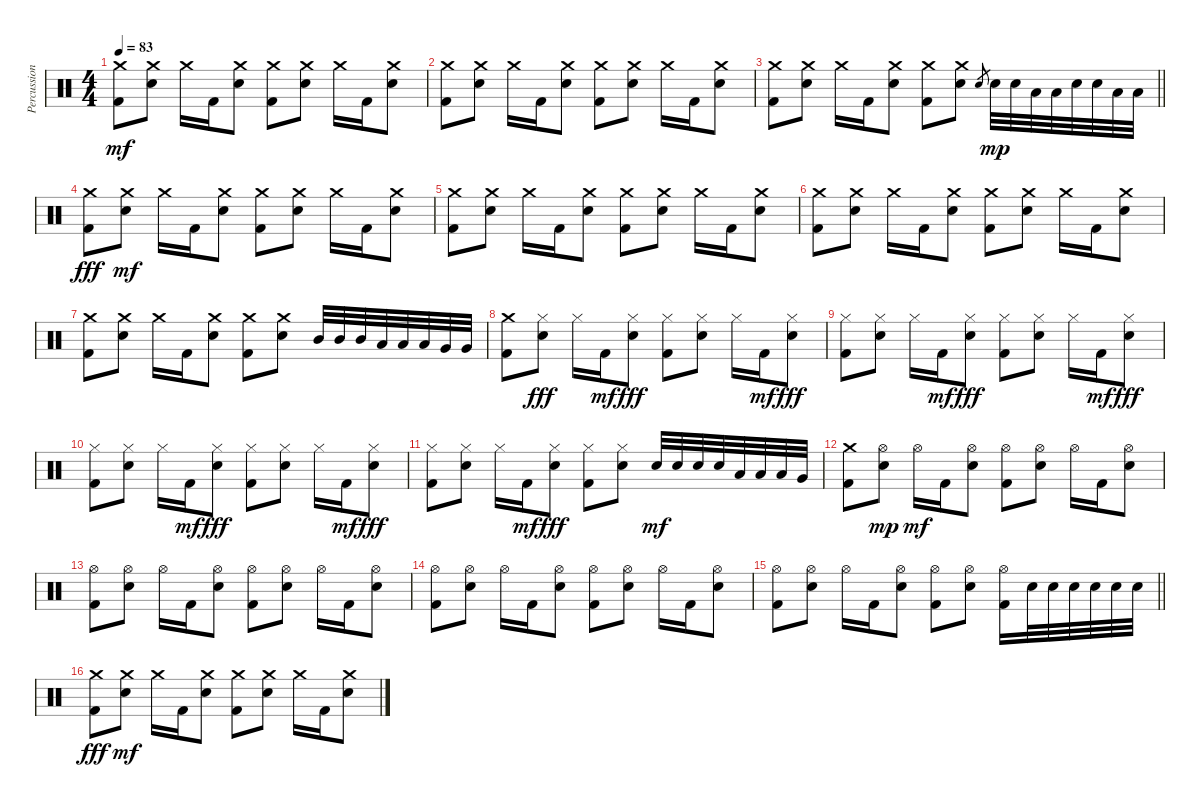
\track ("Percussions" "Percussion") {instrument percussion}
\staff {score}
\articulation defaults
\ts (4 4)
\tempo 83
\clef neutral
\ks c
("Kick (hit) 2" "Crash medium (hit)").8{dy mf} ("Electric Snare (hit)" "Crash medium (hit)").8 "Crash medium (hit)".16 "Kick (hit) 2".16 ("Electric Snare (hit)" "Crash medium (hit)").8 ("Kick (hit) 2" "Crash medium (hit)").8 ("Electric Snare (hit)" "Crash medium (hit)").8 "Crash medium (hit)".16 "Kick (hit) 2".16 ("Electric Snare (hit)" "Crash medium (hit)").8 |
("Kick (hit) 2" "Crash medium (hit)").8 ("Electric Snare (hit)" "Crash medium (hit)").8 "Crash medium (hit)".16 "Kick (hit) 2".16 ("Electric Snare (hit)" "Crash medium (hit)").8 ("Kick (hit) 2" "Crash medium (hit)").8 ("Electric Snare (hit)" "Crash medium (hit)").8 "Crash medium (hit)".16 "Kick (hit) 2".16 ("Electric Snare (hit)" "Crash medium (hit)").8 |
\barLineRight lightlight
("Kick (hit) 2" "Crash medium (hit)").8 ("Electric Snare (hit)" "Crash medium (hit)").8 "Crash medium (hit)".16 "Kick (hit) 2".16 ("Electric Snare (hit)" "Crash medium (hit)").8 ("Kick (hit) 2" "Crash medium (hit)").8 ("Electric Snare (hit)" "Crash medium (hit)").8 "Electric Snare (hit)".8{gr} "Electric Snare (hit)".32{dy mp} "Electric Snare (hit)".32 "Low Tom (hit)".32 "Low Tom (hit)".32 "Electric Snare (hit)".32 "Electric Snare (hit)".32 "Low Tom (hit)".32 "Low Tom (hit)".32 |
\section ("" "")
("Kick (hit) 2" "Crash medium (hit)").8{dy fff} ("Electric Snare (hit)" "Crash medium (hit)").8{dy mf} "Crash medium (hit)".16 "Kick (hit) 2".16 ("Electric Snare (hit)" "Crash medium (hit)").8 ("Kick (hit) 2" "Crash medium (hit)").8 ("Electric Snare (hit)" "Crash medium (hit)").8 "Crash medium (hit)".16 "Kick (hit) 2".16 ("Electric Snare (hit)" "Crash medium (hit)").8 |
("Kick (hit) 2" "Crash medium (hit)").8 ("Electric Snare (hit)" "Crash medium (hit)").8 "Crash medium (hit)".16 "Kick (hit) 2".16 ("Electric Snare (hit)" "Crash medium (hit)").8 ("Kick (hit) 2" "Crash medium (hit)").8 ("Electric Snare (hit)" "Crash medium (hit)").8 "Crash medium (hit)".16 "Kick (hit) 2".16 ("Electric Snare (hit)" "Crash medium (hit)").8 |
("Kick (hit) 2" "Crash medium (hit)").8 ("Electric Snare (hit)" "Crash medium (hit)").8 "Crash medium (hit)".16 "Kick (hit) 2".16 ("Electric Snare (hit)" "Crash medium (hit)").8 ("Kick (hit) 2" "Crash medium (hit)").8 ("Electric Snare (hit)" "Crash medium (hit)").8 "Crash medium (hit)".16 "Kick (hit) 2".16 ("Electric Snare (hit)" "Crash medium (hit)").8 |
("Kick (hit) 2" "Crash medium (hit)").8 ("Electric Snare (hit)" "Crash medium (hit)").8 "Crash medium (hit)".16 "Kick (hit) 2".16 ("Electric Snare (hit)" "Crash medium (hit)").8 ("Kick (hit) 2" "Crash medium (hit)").8 ("Electric Snare (hit)" "Crash medium (hit)").8 "Mid Tom (hit)".32 "Mid Tom (hit)".32 "Mid Tom (hit)".32 "Low Tom (hit)".32 "Low Tom (hit)".32 "Low Tom (hit)".32 "Very Low Tom (hit)".32 "Very Low Tom (hit)".32 |
("Kick (hit) 2" "Crash medium (hit)").8 ("Electric Snare (hit)" "Hi-Hat (closed)").8{dy fff} "Hi-Hat (closed)".16 "Kick (hit) 2".16{dy mf} ("Electric Snare (hit)" "Hi-Hat (closed)").8{dy fff} ("Kick (hit) 2" "Hi-Hat (closed)").8 ("Electric Snare (hit)" "Hi-Hat (closed)").8 "Hi-Hat (closed)".16 "Kick (hit) 2".16{dy mf} ("Electric Snare (hit)" "Hi-Hat (closed)").8{dy fff} |
("Kick (hit) 2" "Hi-Hat (closed)").8 ("Electric Snare (hit)" "Hi-Hat (closed)").8 "Hi-Hat (closed)".16 "Kick (hit) 2".16{dy mf} ("Electric Snare (hit)" "Hi-Hat (closed)").8{dy fff} ("Kick (hit) 2" "Hi-Hat (closed)").8 ("Electric Snare (hit)" "Hi-Hat (closed)").8 "Hi-Hat (closed)".16 "Kick (hit) 2".16{dy mf} ("Electric Snare (hit)" "Hi-Hat (closed)").8{dy fff} |
("Kick (hit) 2" "Hi-Hat (closed)").8 ("Electric Snare (hit)" "Hi-Hat (closed)").8 "Hi-Hat (closed)".16 "Kick (hit) 2".16{dy mf} ("Electric Snare (hit)" "Hi-Hat (closed)").8{dy fff} ("Kick (hit) 2" "Hi-Hat (closed)").8 ("Electric Snare (hit)" "Hi-Hat (closed)").8 "Hi-Hat (closed)".16 "Kick (hit) 2".16{dy mf} ("Electric Snare (hit)" "Hi-Hat (closed)").8{dy fff} |
("Kick (hit) 2" "Hi-Hat (closed)").8 ("Electric Snare (hit)" "Hi-Hat (closed)").8 "Hi-Hat (closed)".16 "Kick (hit) 2".16{dy mf} ("Electric Snare (hit)" "Hi-Hat (closed)").8{dy fff} ("Kick (hit) 2" "Hi-Hat (closed)").8 ("Electric Snare (hit)" "Hi-Hat (closed)").8 "Electric Snare (hit)".32{dy mf} "Electric Snare (hit)".32 "Electric Snare (hit)".32 "Electric Snare (hit)".32 "Low Tom (hit)".32 "Low Tom (hit)".32 "Low Tom (hit)".32 "Very Low Tom (hit)".32 |
("Kick (hit) 2" "Crash medium (hit)").8 ("Electric Snare (hit)" "Hi-Hat (open)").8{dy mp} "Hi-Hat (open)".16{dy mf} "Kick (hit) 2".16 ("Electric Snare (hit)" "Hi-Hat (open)").8 ("Kick (hit) 2" "Hi-Hat (open)").8 ("Electric Snare (hit)" "Hi-Hat (open)").8 "Hi-Hat (open)".16 "Kick (hit) 2".16 ("Electric Snare (hit)" "Hi-Hat (open)").8 |
("Kick (hit) 2" "Hi-Hat (open)").8 ("Electric Snare (hit)" "Hi-Hat (open)").8 "Hi-Hat (open)".16 "Kick (hit) 2".16 ("Electric Snare (hit)" "Hi-Hat (open)").8 ("Kick (hit) 2" "Hi-Hat (open)").8 ("Electric Snare (hit)" "Hi-Hat (open)").8 "Hi-Hat (open)".16 "Kick (hit) 2".16 ("Electric Snare (hit)" "Hi-Hat (open)").8 |
("Kick (hit) 2" "Hi-Hat (open)").8 ("Electric Snare (hit)" "Hi-Hat (open)").8 "Hi-Hat (open)".16 "Kick (hit) 2".16 ("Electric Snare (hit)" "Hi-Hat (open)").8 ("Kick (hit) 2" "Hi-Hat (open)").8 ("Electric Snare (hit)" "Hi-Hat (open)").8 "Hi-Hat (open)".16 "Kick (hit) 2".16 ("Electric Snare (hit)" "Hi-Hat (open)").8 |
\barLineRight lightlight
("Kick (hit) 2" "Hi-Hat (open)").8 ("Electric Snare (hit)" "Hi-Hat (open)").8 "Hi-Hat (open)".16 "Kick (hit) 2".16 ("Electric Snare (hit)" "Hi-Hat (open)").8 ("Kick (hit) 2" "Hi-Hat (open)").8 ("Electric Snare (hit)" "Hi-Hat (open)").8 ("Kick (hit) 2" "Hi-Hat (open)").16 "Electric Snare (hit)".32 "Electric Snare (hit)".32 "Electric Snare (hit)".32 "Electric Snare (hit)".32 "Electric Snare (hit)".32 "Electric Snare (hit)".32 |
\section ("" "")
("Kick (hit) 2" "Crash medium (hit)").8{dy fff} ("Electric Snare (hit)" "Crash medium (hit)").8{dy mf} "Crash medium (hit)".16 "Kick (hit) 2".16 ("Electric Snare (hit)" "Crash medium (hit)").8 ("Kick (hit) 2" "Crash medium (hit)").8 ("Electric Snare (hit)" "Crash medium (hit)").8 "Crash medium (hit)".16 "Kick (hit) 2".16 ("Electric Snare (hit)" "Crash medium (hit)").8
